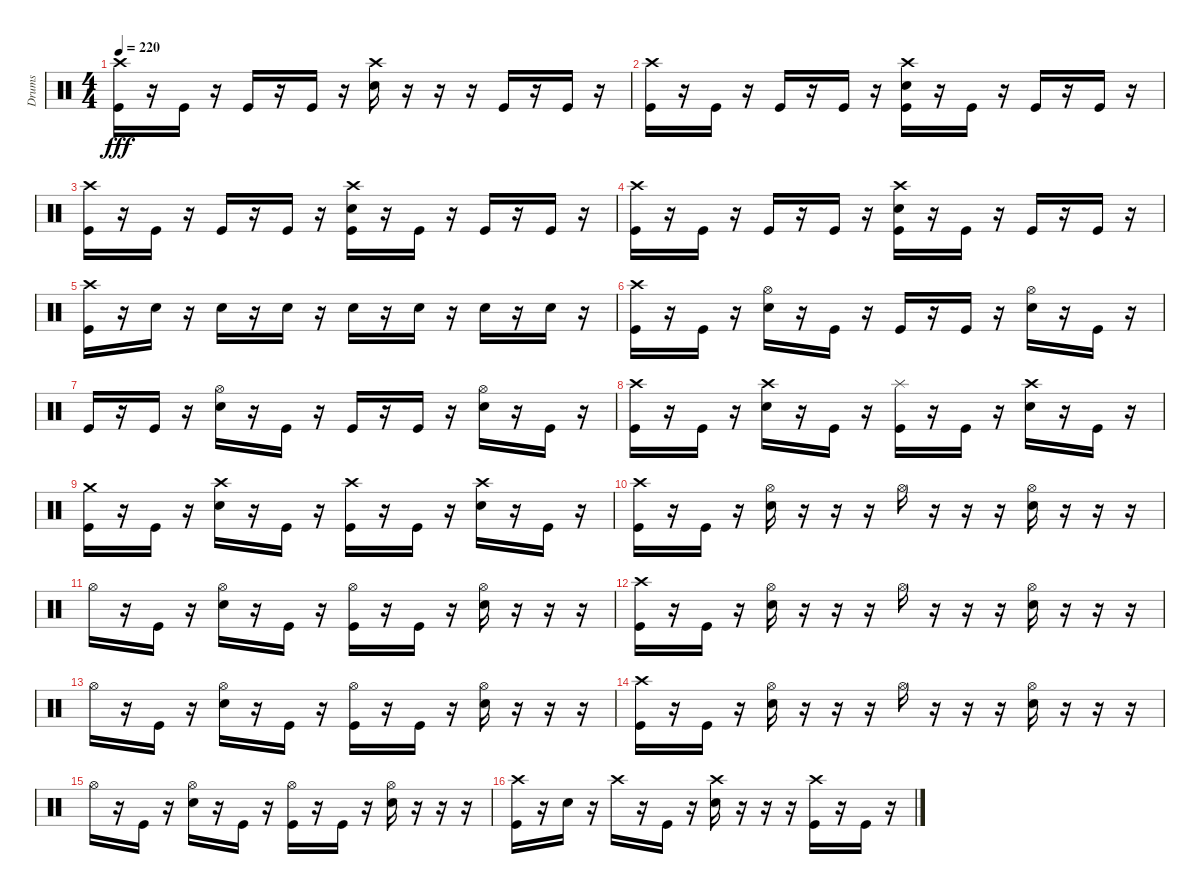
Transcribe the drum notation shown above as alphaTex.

\track ("Drums" "Drums") {instrument percussion}
\staff {score}
\articulation defaults
\ts (4 4)
\tempo 220
\clef neutral
\ks c
("Crash high (hit)" "Kick (hit)").16{dy fff} r.16 "Kick (hit)".16 r.16 "Kick (hit)".16 r.16 "Kick (hit)".16 r.16 ("Crash high (hit)" "Electric Snare (hit)").16 r.16 r.16 r.16 "Kick (hit)".16 r.16 "Kick (hit)".16 r.16 |
("Crash high (hit)" "Kick (hit)").16 r.16 "Kick (hit)".16 r.16 "Kick (hit)".16 r.16 "Kick (hit)".16 r.16 ("Crash high (hit)" "Electric Snare (hit)" "Kick (hit)").16 r.16 "Kick (hit)".16 r.16 "Kick (hit)".16 r.16 "Kick (hit)".16 r.16 |
("Crash high (hit)" "Kick (hit)").16 r.16 "Kick (hit)".16 r.16 "Kick (hit)".16 r.16 "Kick (hit)".16 r.16 ("Crash high (hit)" "Electric Snare (hit)" "Kick (hit)").16 r.16 "Kick (hit)".16 r.16 "Kick (hit)".16 r.16 "Kick (hit)".16 r.16 |
("Crash high (hit)" "Kick (hit)").16 r.16 "Kick (hit)".16 r.16 "Kick (hit)".16 r.16 "Kick (hit)".16 r.16 ("Crash high (hit)" "Electric Snare (hit)" "Kick (hit)").16 r.16 "Kick (hit)".16 r.16 "Kick (hit)".16 r.16 "Kick (hit)".16 r.16 |
("Crash high (hit)" "Kick (hit)").16 r.16 "Electric Snare (hit)".16 r.16 "Electric Snare (hit)".16 r.16 "Electric Snare (hit)".16 r.16 "Electric Snare (hit)".16 r.16 "Electric Snare (hit)".16 r.16 "Electric Snare (hit)".16 r.16 "Electric Snare (hit)".16 r.16 |
("Crash high (hit)" "Kick (hit)").16 r.16 "Kick (hit)".16 r.16 ("Hi-Hat (open)" "Electric Snare (hit)").16 r.16 "Kick (hit)".16 r.16 "Kick (hit)".16 r.16 "Kick (hit)".16 r.16 ("Hi-Hat (open)" "Electric Snare (hit)").16 r.16 "Kick (hit)".16 r.16 |
"Kick (hit)".16 r.16 "Kick (hit)".16 r.16 ("Hi-Hat (open)" "Electric Snare (hit)").16 r.16 "Kick (hit)".16 r.16 "Kick (hit)".16 r.16 "Kick (hit)".16 r.16 ("Hi-Hat (open)" "Electric Snare (hit)").16 r.16 "Kick (hit)".16 r.16 |
("Crash high (hit)" "Kick (hit)").16 r.16 "Kick (hit)".16 r.16 ("Crash high (hit)" "Electric Snare (hit)").16 r.16 "Kick (hit)".16 r.16 ("Splash (hit)" "Kick (hit)").16 r.16 "Kick (hit)".16 r.16 ("Crash high (hit)" "Electric Snare (hit)").16 r.16 "Kick (hit)".16 r.16 |
("Crash medium (hit)" "Kick (hit)").16 r.16 "Kick (hit)".16 r.16 ("Crash high (hit)" "Electric Snare (hit)").16 r.16 "Kick (hit)".16 r.16 ("Crash high (hit)" "Kick (hit)").16 r.16 "Kick (hit)".16 r.16 ("Crash high (hit)" "Electric Snare (hit)").16 r.16 "Kick (hit)".16 r.16 |
("Crash high (hit)" "Kick (hit)").16 r.16 "Kick (hit)".16 r.16 ("Hi-Hat (open)" "Electric Snare (hit)").16 r.16 r.16 r.16 "Hi-Hat (open)".16 r.16 r.16 r.16 ("Hi-Hat (open)" "Electric Snare (hit)").16 r.16 r.16 r.16 |
"Hi-Hat (open)".16 r.16 "Kick (hit)".16 r.16 ("Hi-Hat (open)" "Electric Snare (hit)").16 r.16 "Kick (hit)".16 r.16 ("Hi-Hat (open)" "Kick (hit)").16 r.16 "Kick (hit)".16 r.16 ("Hi-Hat (open)" "Electric Snare (hit)").16 r.16 r.16 r.16 |
("Crash high (hit)" "Kick (hit)").16 r.16 "Kick (hit)".16 r.16 ("Hi-Hat (open)" "Electric Snare (hit)").16 r.16 r.16 r.16 "Hi-Hat (open)".16 r.16 r.16 r.16 ("Hi-Hat (open)" "Electric Snare (hit)").16 r.16 r.16 r.16 |
"Hi-Hat (open)".16 r.16 "Kick (hit)".16 r.16 ("Hi-Hat (open)" "Electric Snare (hit)").16 r.16 "Kick (hit)".16 r.16 ("Hi-Hat (open)" "Kick (hit)").16 r.16 "Kick (hit)".16 r.16 ("Hi-Hat (open)" "Electric Snare (hit)").16 r.16 r.16 r.16 |
("Crash high (hit)" "Kick (hit)").16 r.16 "Kick (hit)".16 r.16 ("Hi-Hat (open)" "Electric Snare (hit)").16 r.16 r.16 r.16 "Hi-Hat (open)".16 r.16 r.16 r.16 ("Hi-Hat (open)" "Electric Snare (hit)").16 r.16 r.16 r.16 |
"Hi-Hat (open)".16 r.16 "Kick (hit)".16 r.16 ("Hi-Hat (open)" "Electric Snare (hit)").16 r.16 "Kick (hit)".16 r.16 ("Hi-Hat (open)" "Kick (hit)").16 r.16 "Kick (hit)".16 r.16 ("Hi-Hat (open)" "Electric Snare (hit)").16 r.16 r.16 r.16 |
("Crash high (hit)" "Kick (hit)").16 r.16 "Electric Snare (hit)".16 r.16 "Crash high (hit)".16 r.16 "Kick (hit)".16 r.16 ("Crash high (hit)" "Electric Snare (hit)").16 r.16 r.16 r.16 ("Crash high (hit)" "Kick (hit)").16 r.16 "Kick (hit)".16 r.16
